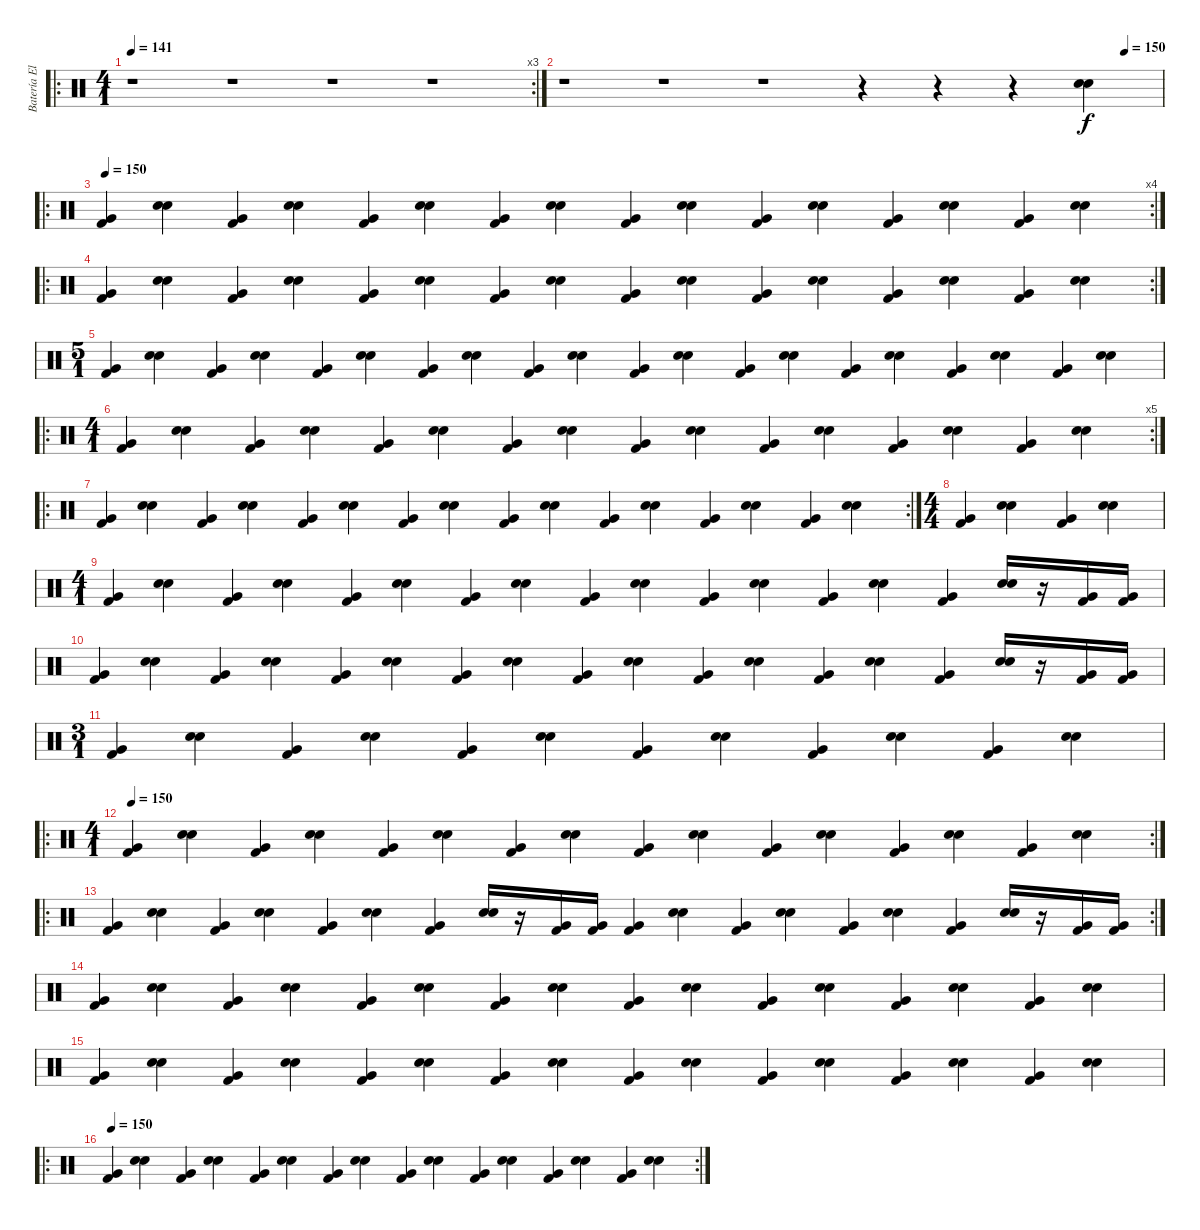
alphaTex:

\track ("Batería Eléctrica" "Batería El") {instrument percussion}
\staff {score}
\articulation defaults
\ro
\rc 3
\ts (4 1)
\tempo 141
\clef neutral
\ks c
r.1{dy f} r.1 r.1 r.1 |
\tempo (150 0.9375)
r.1 r.1 r.1 r.4 r.4 r.4 ("Snare (hit) 2" "Electric Snare (hit)").4 |
\ro
\rc 4
\tempo 150
("Very Low Tom (hit)" "Kick (hit) 2").4 ("Snare (hit) 2" "Electric Snare (hit)").4 ("Very Low Tom (hit)" "Kick (hit) 2").4 ("Snare (hit) 2" "Electric Snare (hit)").4 ("Very Low Tom (hit)" "Kick (hit) 2").4 ("Snare (hit) 2" "Electric Snare (hit)").4 ("Very Low Tom (hit)" "Kick (hit) 2").4 ("Snare (hit) 2" "Electric Snare (hit)").4 ("Very Low Tom (hit)" "Kick (hit) 2").4 ("Snare (hit) 2" "Electric Snare (hit)").4 ("Very Low Tom (hit)" "Kick (hit) 2").4 ("Snare (hit) 2" "Electric Snare (hit)").4 ("Very Low Tom (hit)" "Kick (hit) 2").4 ("Snare (hit) 2" "Electric Snare (hit)").4 ("Very Low Tom (hit)" "Kick (hit) 2").4 ("Snare (hit) 2" "Electric Snare (hit)").4 |
\ro
\rc 2
("Very Low Tom (hit)" "Kick (hit) 2").4 ("Snare (hit) 2" "Electric Snare (hit)").4 ("Very Low Tom (hit)" "Kick (hit) 2").4 ("Snare (hit) 2" "Electric Snare (hit)").4 ("Very Low Tom (hit)" "Kick (hit) 2").4 ("Snare (hit) 2" "Electric Snare (hit)").4 ("Very Low Tom (hit)" "Kick (hit) 2").4 ("Snare (hit) 2" "Electric Snare (hit)").4 ("Very Low Tom (hit)" "Kick (hit) 2").4 ("Snare (hit) 2" "Electric Snare (hit)").4 ("Very Low Tom (hit)" "Kick (hit) 2").4 ("Snare (hit) 2" "Electric Snare (hit)").4 ("Very Low Tom (hit)" "Kick (hit) 2").4 ("Snare (hit) 2" "Electric Snare (hit)").4 ("Very Low Tom (hit)" "Kick (hit) 2").4 ("Snare (hit) 2" "Electric Snare (hit)").4 |
\ts (5 1)
("Very Low Tom (hit)" "Kick (hit) 2").4 ("Snare (hit) 2" "Electric Snare (hit)").4 ("Very Low Tom (hit)" "Kick (hit) 2").4 ("Snare (hit) 2" "Electric Snare (hit)").4 ("Very Low Tom (hit)" "Kick (hit) 2").4 ("Snare (hit) 2" "Electric Snare (hit)").4 ("Very Low Tom (hit)" "Kick (hit) 2").4 ("Snare (hit) 2" "Electric Snare (hit)").4 ("Very Low Tom (hit)" "Kick (hit) 2").4 ("Snare (hit) 2" "Electric Snare (hit)").4 ("Very Low Tom (hit)" "Kick (hit) 2").4 ("Snare (hit) 2" "Electric Snare (hit)").4 ("Very Low Tom (hit)" "Kick (hit) 2").4 ("Snare (hit) 2" "Electric Snare (hit)").4 ("Very Low Tom (hit)" "Kick (hit) 2").4 ("Snare (hit) 2" "Electric Snare (hit)").4 ("Very Low Tom (hit)" "Kick (hit) 2").4 ("Snare (hit) 2" "Electric Snare (hit)").4 ("Very Low Tom (hit)" "Kick (hit) 2").4 ("Snare (hit) 2" "Electric Snare (hit)").4 |
\ro
\rc 5
\ts (4 1)
("Very Low Tom (hit)" "Kick (hit) 2").4 ("Snare (hit) 2" "Electric Snare (hit)").4 ("Very Low Tom (hit)" "Kick (hit) 2").4 ("Snare (hit) 2" "Electric Snare (hit)").4 ("Very Low Tom (hit)" "Kick (hit) 2").4 ("Snare (hit) 2" "Electric Snare (hit)").4 ("Very Low Tom (hit)" "Kick (hit) 2").4 ("Snare (hit) 2" "Electric Snare (hit)").4 ("Very Low Tom (hit)" "Kick (hit) 2").4 ("Snare (hit) 2" "Electric Snare (hit)").4 ("Very Low Tom (hit)" "Kick (hit) 2").4 ("Snare (hit) 2" "Electric Snare (hit)").4 ("Very Low Tom (hit)" "Kick (hit) 2").4 ("Snare (hit) 2" "Electric Snare (hit)").4 ("Very Low Tom (hit)" "Kick (hit) 2").4 ("Snare (hit) 2" "Electric Snare (hit)").4 |
\ro
\rc 2
("Very Low Tom (hit)" "Kick (hit) 2").4 ("Snare (hit) 2" "Electric Snare (hit)").4 ("Very Low Tom (hit)" "Kick (hit) 2").4 ("Snare (hit) 2" "Electric Snare (hit)").4 ("Very Low Tom (hit)" "Kick (hit) 2").4 ("Snare (hit) 2" "Electric Snare (hit)").4 ("Very Low Tom (hit)" "Kick (hit) 2").4 ("Snare (hit) 2" "Electric Snare (hit)").4 ("Very Low Tom (hit)" "Kick (hit) 2").4 ("Snare (hit) 2" "Electric Snare (hit)").4 ("Very Low Tom (hit)" "Kick (hit) 2").4 ("Snare (hit) 2" "Electric Snare (hit)").4 ("Very Low Tom (hit)" "Kick (hit) 2").4 ("Snare (hit) 2" "Electric Snare (hit)").4 ("Very Low Tom (hit)" "Kick (hit) 2").4 ("Snare (hit) 2" "Electric Snare (hit)").4 |
\ts (4 4)
("Very Low Tom (hit)" "Kick (hit) 2").4 ("Snare (hit) 2" "Electric Snare (hit)").4 ("Very Low Tom (hit)" "Kick (hit) 2").4 ("Snare (hit) 2" "Electric Snare (hit)").4 |
\ts (4 1)
("Very Low Tom (hit)" "Kick (hit) 2").4 ("Snare (hit) 2" "Electric Snare (hit)").4 ("Very Low Tom (hit)" "Kick (hit) 2").4 ("Snare (hit) 2" "Electric Snare (hit)").4 ("Very Low Tom (hit)" "Kick (hit) 2").4 ("Snare (hit) 2" "Electric Snare (hit)").4 ("Very Low Tom (hit)" "Kick (hit) 2").4 ("Snare (hit) 2" "Electric Snare (hit)").4 ("Very Low Tom (hit)" "Kick (hit) 2").4 ("Snare (hit) 2" "Electric Snare (hit)").4 ("Very Low Tom (hit)" "Kick (hit) 2").4 ("Snare (hit) 2" "Electric Snare (hit)").4 ("Very Low Tom (hit)" "Kick (hit) 2").4 ("Snare (hit) 2" "Electric Snare (hit)").4 ("Very Low Tom (hit)" "Kick (hit) 2").4 ("Snare (hit) 2" "Electric Snare (hit)").16 r.16 ("Very Low Tom (hit)" "Kick (hit) 2").16 ("Very Low Tom (hit)" "Kick (hit) 2").16 |
("Very Low Tom (hit)" "Kick (hit) 2").4 ("Snare (hit) 2" "Electric Snare (hit)").4 ("Very Low Tom (hit)" "Kick (hit) 2").4 ("Snare (hit) 2" "Electric Snare (hit)").4 ("Very Low Tom (hit)" "Kick (hit) 2").4 ("Snare (hit) 2" "Electric Snare (hit)").4 ("Very Low Tom (hit)" "Kick (hit) 2").4 ("Snare (hit) 2" "Electric Snare (hit)").4 ("Very Low Tom (hit)" "Kick (hit) 2").4 ("Snare (hit) 2" "Electric Snare (hit)").4 ("Very Low Tom (hit)" "Kick (hit) 2").4 ("Snare (hit) 2" "Electric Snare (hit)").4 ("Very Low Tom (hit)" "Kick (hit) 2").4 ("Snare (hit) 2" "Electric Snare (hit)").4 ("Very Low Tom (hit)" "Kick (hit) 2").4 ("Snare (hit) 2" "Electric Snare (hit)").16 r.16 ("Very Low Tom (hit)" "Kick (hit) 2").16 ("Very Low Tom (hit)" "Kick (hit) 2").16 |
\ts (3 1)
("Very Low Tom (hit)" "Kick (hit) 2").4 ("Snare (hit) 2" "Electric Snare (hit)").4 ("Very Low Tom (hit)" "Kick (hit) 2").4 ("Snare (hit) 2" "Electric Snare (hit)").4 ("Very Low Tom (hit)" "Kick (hit) 2").4 ("Snare (hit) 2" "Electric Snare (hit)").4 ("Very Low Tom (hit)" "Kick (hit) 2").4 ("Snare (hit) 2" "Electric Snare (hit)").4 ("Very Low Tom (hit)" "Kick (hit) 2").4 ("Snare (hit) 2" "Electric Snare (hit)").4 ("Very Low Tom (hit)" "Kick (hit) 2").4 ("Snare (hit) 2" "Electric Snare (hit)").4 |
\ro
\rc 2
\ts (4 1)
\tempo 150
("Very Low Tom (hit)" "Kick (hit) 2").4 ("Snare (hit) 2" "Electric Snare (hit)").4 ("Very Low Tom (hit)" "Kick (hit) 2").4 ("Snare (hit) 2" "Electric Snare (hit)").4 ("Very Low Tom (hit)" "Kick (hit) 2").4 ("Snare (hit) 2" "Electric Snare (hit)").4 ("Very Low Tom (hit)" "Kick (hit) 2").4 ("Snare (hit) 2" "Electric Snare (hit)").4 ("Very Low Tom (hit)" "Kick (hit) 2").4 ("Snare (hit) 2" "Electric Snare (hit)").4 ("Very Low Tom (hit)" "Kick (hit) 2").4 ("Snare (hit) 2" "Electric Snare (hit)").4 ("Very Low Tom (hit)" "Kick (hit) 2").4 ("Snare (hit) 2" "Electric Snare (hit)").4 ("Very Low Tom (hit)" "Kick (hit) 2").4 ("Snare (hit) 2" "Electric Snare (hit)").4 |
\ro
\rc 2
("Very Low Tom (hit)" "Kick (hit) 2").4 ("Snare (hit) 2" "Electric Snare (hit)").4 ("Very Low Tom (hit)" "Kick (hit) 2").4 ("Snare (hit) 2" "Electric Snare (hit)").4 ("Very Low Tom (hit)" "Kick (hit) 2").4 ("Snare (hit) 2" "Electric Snare (hit)").4 ("Very Low Tom (hit)" "Kick (hit) 2").4 ("Snare (hit) 2" "Electric Snare (hit)").16 r.16 ("Very Low Tom (hit)" "Kick (hit) 2").16 ("Very Low Tom (hit)" "Kick (hit) 2").16 ("Very Low Tom (hit)" "Kick (hit) 2").4 ("Snare (hit) 2" "Electric Snare (hit)").4 ("Very Low Tom (hit)" "Kick (hit) 2").4 ("Snare (hit) 2" "Electric Snare (hit)").4 ("Very Low Tom (hit)" "Kick (hit) 2").4 ("Snare (hit) 2" "Electric Snare (hit)").4 ("Very Low Tom (hit)" "Kick (hit) 2").4 ("Snare (hit) 2" "Electric Snare (hit)").16 r.16 ("Very Low Tom (hit)" "Kick (hit) 2").16 ("Very Low Tom (hit)" "Kick (hit) 2").16 |
("Very Low Tom (hit)" "Kick (hit) 2").4 ("Snare (hit) 2" "Electric Snare (hit)").4 ("Very Low Tom (hit)" "Kick (hit) 2").4 ("Snare (hit) 2" "Electric Snare (hit)").4 ("Very Low Tom (hit)" "Kick (hit) 2").4 ("Snare (hit) 2" "Electric Snare (hit)").4 ("Very Low Tom (hit)" "Kick (hit) 2").4 ("Snare (hit) 2" "Electric Snare (hit)").4 ("Very Low Tom (hit)" "Kick (hit) 2").4 ("Snare (hit) 2" "Electric Snare (hit)").4 ("Very Low Tom (hit)" "Kick (hit) 2").4 ("Snare (hit) 2" "Electric Snare (hit)").4 ("Very Low Tom (hit)" "Kick (hit) 2").4 ("Snare (hit) 2" "Electric Snare (hit)").4 ("Very Low Tom (hit)" "Kick (hit) 2").4 ("Snare (hit) 2" "Electric Snare (hit)").4 |
("Very Low Tom (hit)" "Kick (hit) 2").4 ("Snare (hit) 2" "Electric Snare (hit)").4 ("Very Low Tom (hit)" "Kick (hit) 2").4 ("Snare (hit) 2" "Electric Snare (hit)").4 ("Very Low Tom (hit)" "Kick (hit) 2").4 ("Snare (hit) 2" "Electric Snare (hit)").4 ("Very Low Tom (hit)" "Kick (hit) 2").4 ("Snare (hit) 2" "Electric Snare (hit)").4 ("Very Low Tom (hit)" "Kick (hit) 2").4 ("Snare (hit) 2" "Electric Snare (hit)").4 ("Very Low Tom (hit)" "Kick (hit) 2").4 ("Snare (hit) 2" "Electric Snare (hit)").4 ("Very Low Tom (hit)" "Kick (hit) 2").4 ("Snare (hit) 2" "Electric Snare (hit)").4 ("Very Low Tom (hit)" "Kick (hit) 2").4 ("Snare (hit) 2" "Electric Snare (hit)").4 |
\ro
\rc 2
\tempo 150
("Very Low Tom (hit)" "Kick (hit) 2").4 ("Snare (hit) 2" "Electric Snare (hit)").4 ("Very Low Tom (hit)" "Kick (hit) 2").4 ("Snare (hit) 2" "Electric Snare (hit)").4 ("Very Low Tom (hit)" "Kick (hit) 2").4 ("Snare (hit) 2" "Electric Snare (hit)").4 ("Very Low Tom (hit)" "Kick (hit) 2").4 ("Snare (hit) 2" "Electric Snare (hit)").4 ("Very Low Tom (hit)" "Kick (hit) 2").4 ("Snare (hit) 2" "Electric Snare (hit)").4 ("Very Low Tom (hit)" "Kick (hit) 2").4 ("Snare (hit) 2" "Electric Snare (hit)").4 ("Very Low Tom (hit)" "Kick (hit) 2").4 ("Snare (hit) 2" "Electric Snare (hit)").4 ("Very Low Tom (hit)" "Kick (hit) 2").4 ("Snare (hit) 2" "Electric Snare (hit)").4
